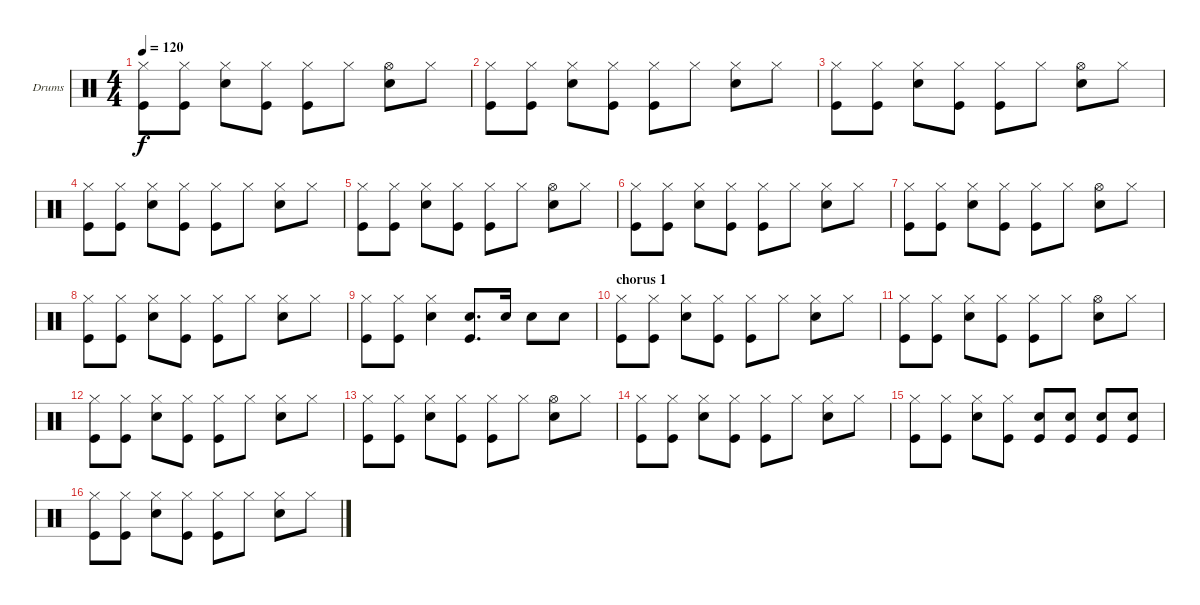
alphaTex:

\bracketExtendMode groupsimilarinstruments
\firstSystemTrackNameOrientation horizontal
\otherSystemsTrackNameOrientation horizontal
\track ("Drumkit" "Drums") {instrument percussion}
\staff {score}
\articulation defaults
\ts (4 4)
\tempo 120
\clef neutral
\ks c
("Kick (hit)" "Hi-Hat (closed)").8{dy f} ("Kick (hit)" "Hi-Hat (closed)").8 ("Snare (hit) 2" "Hi-Hat (closed)").8 ("Kick (hit)" "Hi-Hat (closed)").8 ("Kick (hit)" "Hi-Hat (closed)").8 "Hi-Hat (closed)".8 ("Snare (hit) 2" "Hi-Hat (open)").8 "Hi-Hat (closed)".8 |
("Kick (hit)" "Hi-Hat (closed)").8 ("Kick (hit)" "Hi-Hat (closed)").8 ("Snare (hit) 2" "Hi-Hat (closed)").8 ("Kick (hit)" "Hi-Hat (closed)").8 ("Kick (hit)" "Hi-Hat (closed)").8 "Hi-Hat (closed)".8 ("Snare (hit) 2" "Hi-Hat (closed)").8 "Hi-Hat (closed)".8 |
("Kick (hit)" "Hi-Hat (closed)").8 ("Kick (hit)" "Hi-Hat (closed)").8 ("Snare (hit) 2" "Hi-Hat (closed)").8 ("Kick (hit)" "Hi-Hat (closed)").8 ("Kick (hit)" "Hi-Hat (closed)").8 "Hi-Hat (closed)".8 ("Snare (hit) 2" "Hi-Hat (open)").8 "Hi-Hat (closed)".8 |
("Kick (hit)" "Hi-Hat (closed)").8 ("Kick (hit)" "Hi-Hat (closed)").8 ("Snare (hit) 2" "Hi-Hat (closed)").8 ("Kick (hit)" "Hi-Hat (closed)").8 ("Kick (hit)" "Hi-Hat (closed)").8 "Hi-Hat (closed)".8 ("Snare (hit) 2" "Hi-Hat (closed)").8 "Hi-Hat (closed)".8 |
("Kick (hit)" "Hi-Hat (closed)").8 ("Kick (hit)" "Hi-Hat (closed)").8 ("Snare (hit) 2" "Hi-Hat (closed)").8 ("Kick (hit)" "Hi-Hat (closed)").8 ("Kick (hit)" "Hi-Hat (closed)").8 "Hi-Hat (closed)".8 ("Snare (hit) 2" "Hi-Hat (open)").8 "Hi-Hat (closed)".8 |
("Kick (hit)" "Hi-Hat (closed)").8 ("Kick (hit)" "Hi-Hat (closed)").8 ("Snare (hit) 2" "Hi-Hat (closed)").8 ("Kick (hit)" "Hi-Hat (closed)").8 ("Kick (hit)" "Hi-Hat (closed)").8 "Hi-Hat (closed)".8 ("Snare (hit) 2" "Hi-Hat (closed)").8 "Hi-Hat (closed)".8 |
("Kick (hit)" "Hi-Hat (closed)").8 ("Kick (hit)" "Hi-Hat (closed)").8 ("Snare (hit) 2" "Hi-Hat (closed)").8 ("Kick (hit)" "Hi-Hat (closed)").8 ("Kick (hit)" "Hi-Hat (closed)").8 "Hi-Hat (closed)".8 ("Snare (hit) 2" "Hi-Hat (open)").8 "Hi-Hat (closed)".8 |
("Kick (hit)" "Hi-Hat (closed)").8 ("Kick (hit)" "Hi-Hat (closed)").8 ("Snare (hit) 2" "Hi-Hat (closed)").8 ("Kick (hit)" "Hi-Hat (closed)").8 ("Kick (hit)" "Hi-Hat (closed)").8 "Hi-Hat (closed)".8 ("Snare (hit) 2" "Hi-Hat (closed)").8 "Hi-Hat (closed)".8 |
("Hi-Hat (closed)" "Kick (hit)").8 ("Kick (hit)" "Hi-Hat (closed)").8 ("Snare (hit) 2" "Hi-Hat (closed)").4 ("Kick (hit)" "Snare (hit) 2").8{d} "Snare (hit) 2".16 "Snare (hit) 2".8 "Snare (hit) 2".8 |
\section ("" "chorus 1")
("Kick (hit)" "Hi-Hat (closed)").8 ("Kick (hit)" "Hi-Hat (closed)").8 ("Snare (hit) 2" "Hi-Hat (closed)").8 ("Kick (hit)" "Hi-Hat (closed)").8 ("Kick (hit)" "Hi-Hat (closed)").8 "Hi-Hat (closed)".8 ("Snare (hit) 2" "Hi-Hat (closed)").8 "Hi-Hat (closed)".8 |
("Kick (hit)" "Hi-Hat (closed)").8 ("Kick (hit)" "Hi-Hat (closed)").8 ("Snare (hit) 2" "Hi-Hat (closed)").8 ("Kick (hit)" "Hi-Hat (closed)").8 ("Kick (hit)" "Hi-Hat (closed)").8 "Hi-Hat (closed)".8 ("Snare (hit) 2" "Hi-Hat (open)").8 "Hi-Hat (closed)".8 |
("Kick (hit)" "Hi-Hat (closed)").8 ("Kick (hit)" "Hi-Hat (closed)").8 ("Snare (hit) 2" "Hi-Hat (closed)").8 ("Kick (hit)" "Hi-Hat (closed)").8 ("Kick (hit)" "Hi-Hat (closed)").8 "Hi-Hat (closed)".8 ("Snare (hit) 2" "Hi-Hat (closed)").8 "Hi-Hat (closed)".8 |
("Kick (hit)" "Hi-Hat (closed)").8 ("Kick (hit)" "Hi-Hat (closed)").8 ("Snare (hit) 2" "Hi-Hat (closed)").8 ("Kick (hit)" "Hi-Hat (closed)").8 ("Kick (hit)" "Hi-Hat (closed)").8 "Hi-Hat (closed)".8 ("Snare (hit) 2" "Hi-Hat (open)").8 "Hi-Hat (closed)".8 |
("Kick (hit)" "Hi-Hat (closed)").8 ("Kick (hit)" "Hi-Hat (closed)").8 ("Snare (hit) 2" "Hi-Hat (closed)").8 ("Kick (hit)" "Hi-Hat (closed)").8 ("Kick (hit)" "Hi-Hat (closed)").8 "Hi-Hat (closed)".8 ("Snare (hit) 2" "Hi-Hat (closed)").8 "Hi-Hat (closed)".8 |
("Hi-Hat (closed)" "Kick (hit)").8 ("Hi-Hat (closed)" "Kick (hit)").8 ("Hi-Hat (closed)" "Snare (hit) 2").8 ("Hi-Hat (closed)" "Kick (hit)").8 ("Snare (hit) 2" "Kick (hit)").8 ("Snare (hit) 2" "Kick (hit)").8 ("Snare (hit) 2" "Kick (hit)").8 ("Snare (hit) 2" "Kick (hit)").8 |
("Kick (hit)" "Hi-Hat (closed)").8 ("Kick (hit)" "Hi-Hat (closed)").8 ("Snare (hit) 2" "Hi-Hat (closed)").8 ("Kick (hit)" "Hi-Hat (closed)").8 ("Kick (hit)" "Hi-Hat (closed)").8 "Hi-Hat (closed)".8 ("Snare (hit) 2" "Hi-Hat (closed)").8 "Hi-Hat (closed)".8
